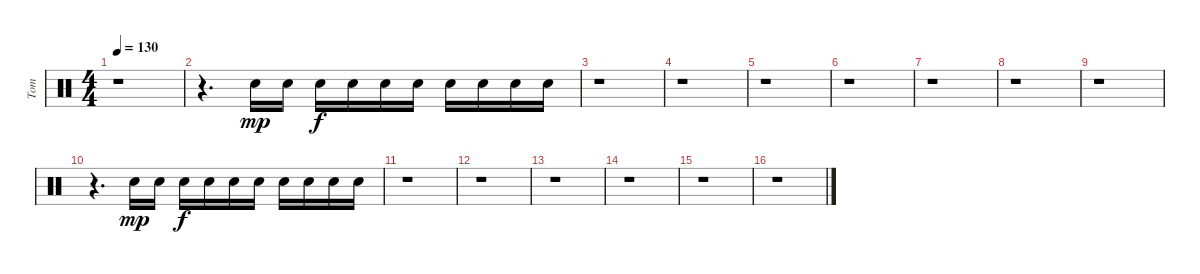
\track ("Tom" "Tom") {instrument percussion}
\staff {score}
\articulation defaults
\ts (4 4)
\tempo 130
\clef neutral
\ks c
r.1{dy f} |
r.4{d} "Electric Snare (hit)".16{dy mp} "Electric Snare (hit)".16 "Electric Snare (hit)".16{dy f} "Electric Snare (hit)".16 "Electric Snare (hit)".16 "Electric Snare (hit)".16 "Electric Snare (hit)".16 "Electric Snare (hit)".16 "Electric Snare (hit)".16 "Electric Snare (hit)".16 |
r.1 |
r.1 |
r.1 |
r.1 |
r.1 |
r.1 |
r.1 |
r.4{d} "Electric Snare (hit)".16{dy mp} "Electric Snare (hit)".16 "Electric Snare (hit)".16{dy f} "Electric Snare (hit)".16 "Electric Snare (hit)".16 "Electric Snare (hit)".16 "Electric Snare (hit)".16 "Electric Snare (hit)".16 "Electric Snare (hit)".16 "Electric Snare (hit)".16 |
r.1 |
r.1 |
r.1 |
r.1 |
r.1 |
r.1
